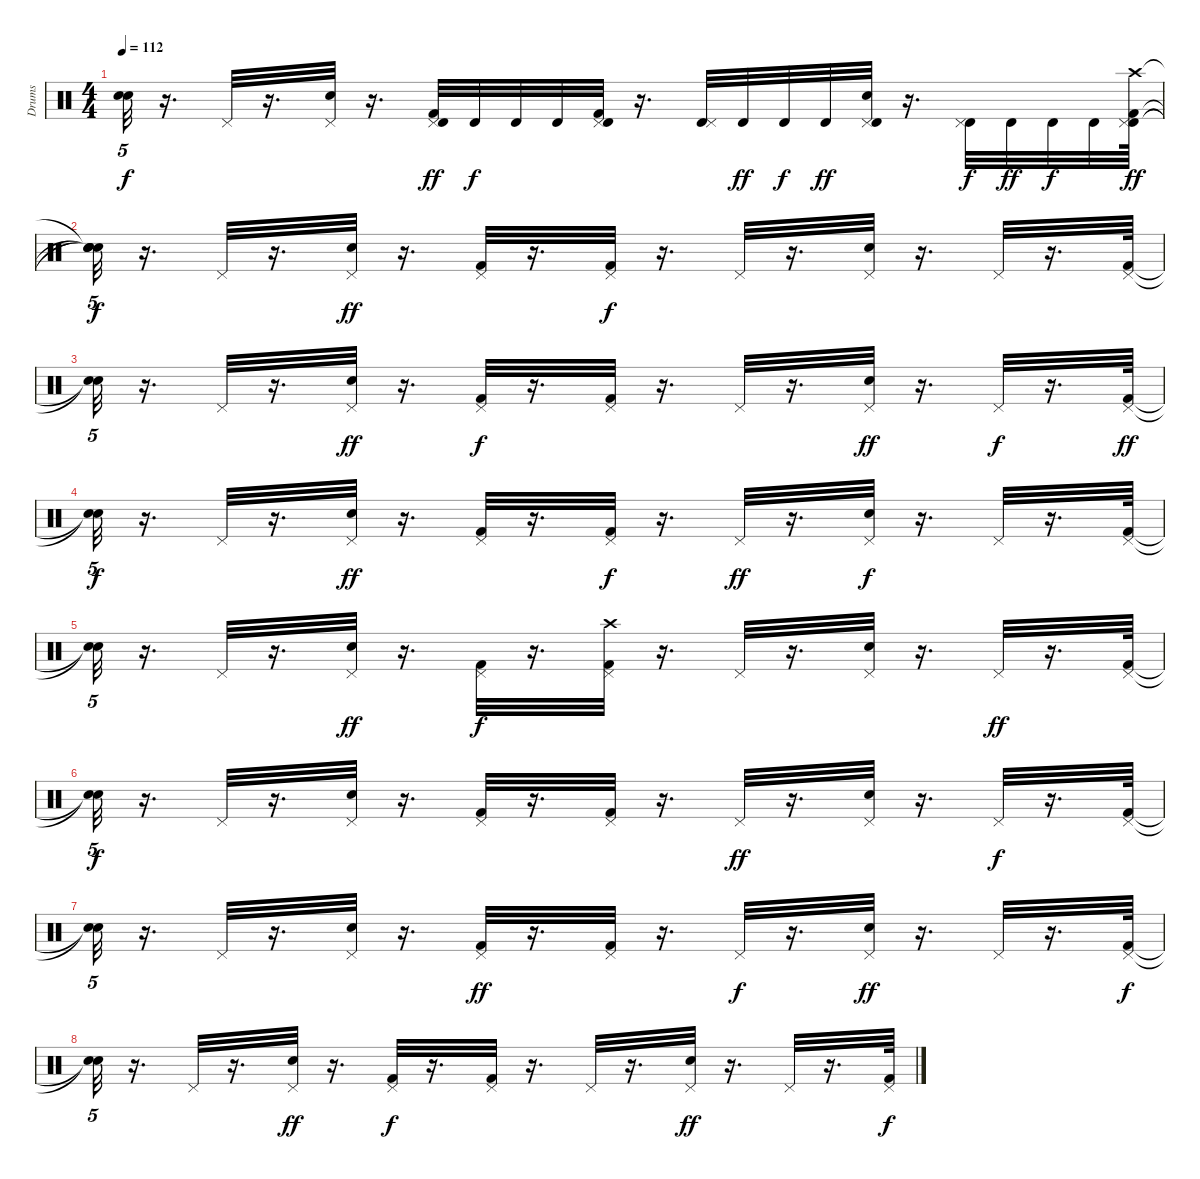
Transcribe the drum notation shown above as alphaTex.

\track ("Drums" "Drums") {instrument percussion}
\staff {score}
\articulation defaults
\ts (4 4)
\tempo 112
\clef neutral
\ks c
("Snare (hit)"{t} "Snare (hit)"{t}).32{tu (5 4) dy f} r.16{d} "Pedal Hi-Hat (hit)".32 r.16{d} ("Snare (hit) 2" "Pedal Hi-Hat (hit)").32 r.16{d} ("Kick (hit) 2" "Pedal Hi-Hat (hit)" "Timbale high (hit)").32{dy ff} "Timbale high (hit)".32{dy f} "Timbale high (hit)".32 "Timbale high (hit)".32 ("Pedal Hi-Hat (hit)" "Kick (hit) 2" "Timbale high (hit)").32 r.16{d} ("Timbale high (hit)" "Pedal Hi-Hat (hit)").32 "Timbale high (hit)".32{dy ff} "Timbale high (hit)".32{dy f} "Timbale high (hit)".32{dy ff} ("Snare (hit) 2" "Pedal Hi-Hat (hit)" "Timbale high (hit)").32 r.16{d} ("Timbale high (hit)" "Pedal Hi-Hat (hit)").32{dy f} "Timbale high (hit)".32{dy ff} "Timbale high (hit)".32{dy f} "Timbale high (hit)".32 ("Timbale high (hit)" "Crash high (hit)" "Pedal Hi-Hat (hit)" "Kick (hit) 2").64{dy ff} |
("Snare (hit)"{t} "Snare (hit)"{t} "Snare (hit)"{t} "Snare (hit)"{t}).32{tu (5 4) dy f} r.16{d} "Pedal Hi-Hat (hit)".32 r.16{d} ("Pedal Hi-Hat (hit)" "Snare (hit) 2").32{dy ff} r.16{d} ("Kick (hit) 2" "Pedal Hi-Hat (hit)").32 r.16{d} ("Kick (hit) 2" "Pedal Hi-Hat (hit)").32{dy f} r.16{d} "Pedal Hi-Hat (hit)".32 r.16{d} ("Pedal Hi-Hat (hit)" "Snare (hit) 2").32 r.16{d} "Pedal Hi-Hat (hit)".32 r.16{d} ("Kick (hit) 2" "Pedal Hi-Hat (hit)").64 |
("Snare (hit)"{t} "Snare (hit)"{t}).32{tu (5 4)} r.16{d} "Pedal Hi-Hat (hit)".32 r.16{d} ("Snare (hit) 2" "Pedal Hi-Hat (hit)").32{dy ff} r.16{d} ("Kick (hit) 2" "Pedal Hi-Hat (hit)").32{dy f} r.16{d} ("Kick (hit) 2" "Pedal Hi-Hat (hit)").32 r.16{d} "Pedal Hi-Hat (hit)".32 r.16{d} ("Snare (hit) 2" "Pedal Hi-Hat (hit)").32{dy ff} r.16{d} "Pedal Hi-Hat (hit)".32{dy f} r.16{d} ("Pedal Hi-Hat (hit)" "Kick (hit) 2").64{dy ff} |
("Snare (hit)"{t} "Snare (hit)"{t}).32{tu (5 4) dy f} r.16{d} "Pedal Hi-Hat (hit)".32 r.16{d} ("Snare (hit) 2" "Pedal Hi-Hat (hit)").32{dy ff} r.16{d} ("Kick (hit) 2" "Pedal Hi-Hat (hit)").32 r.16{d} ("Pedal Hi-Hat (hit)" "Kick (hit) 2").32{dy f} r.16{d} "Pedal Hi-Hat (hit)".32{dy ff} r.16{d} ("Pedal Hi-Hat (hit)" "Snare (hit) 2").32{dy f} r.16{d} "Pedal Hi-Hat (hit)".32 r.16{d} ("Pedal Hi-Hat (hit)" "Kick (hit) 2").64 |
("Snare (hit)"{t} "Snare (hit)"{t}).32{tu (5 4)} r.16{d} "Pedal Hi-Hat (hit)".32 r.16{d} ("Pedal Hi-Hat (hit)" "Snare (hit) 2").32{dy ff} r.16{d} ("Kick (hit) 2" "Pedal Hi-Hat (hit)").32{dy f} r.16{d} ("Pedal Hi-Hat (hit)" "Crash high (hit)" "Kick (hit) 2").32 r.16{d} "Pedal Hi-Hat (hit)".32 r.16{d} ("Snare (hit) 2" "Pedal Hi-Hat (hit)").32 r.16{d} "Pedal Hi-Hat (hit)".32{dy ff} r.16{d} ("Pedal Hi-Hat (hit)" "Kick (hit) 2").64 |
("Snare (hit)"{t} "Snare (hit)"{t}).32{tu (5 4) dy f} r.16{d} "Pedal Hi-Hat (hit)".32 r.16{d} ("Pedal Hi-Hat (hit)" "Snare (hit) 2").32 r.16{d} ("Pedal Hi-Hat (hit)" "Kick (hit) 2").32 r.16{d} ("Kick (hit) 2" "Pedal Hi-Hat (hit)").32 r.16{d} "Pedal Hi-Hat (hit)".32{dy ff} r.16{d} ("Snare (hit) 2" "Pedal Hi-Hat (hit)").32 r.16{d} "Pedal Hi-Hat (hit)".32{dy f} r.16{d} ("Kick (hit) 2" "Pedal Hi-Hat (hit)").64 |
("Snare (hit)"{t} "Snare (hit)"{t}).32{tu (5 4)} r.16{d} "Pedal Hi-Hat (hit)".32 r.16{d} ("Snare (hit) 2" "Pedal Hi-Hat (hit)").32 r.16{d} ("Pedal Hi-Hat (hit)" "Kick (hit) 2").32{dy ff} r.16{d} ("Pedal Hi-Hat (hit)" "Kick (hit) 2").32 r.16{d} "Pedal Hi-Hat (hit)".32{dy f} r.16{d} ("Pedal Hi-Hat (hit)" "Snare (hit) 2").32{dy ff} r.16{d} "Pedal Hi-Hat (hit)".32 r.16{d} ("Kick (hit) 2" "Pedal Hi-Hat (hit)").64{dy f} |
("Snare (hit)"{t} "Snare (hit)"{t}).32{tu (5 4)} r.16{d} "Pedal Hi-Hat (hit)".32 r.16{d} ("Pedal Hi-Hat (hit)" "Snare (hit) 2").32{dy ff} r.16{d} ("Pedal Hi-Hat (hit)" "Kick (hit) 2").32{dy f} r.16{d} ("Kick (hit) 2" "Pedal Hi-Hat (hit)").32 r.16{d} "Pedal Hi-Hat (hit)".32 r.16{d} ("Pedal Hi-Hat (hit)" "Snare (hit) 2").32{dy ff} r.16{d} "Pedal Hi-Hat (hit)".32 r.16{d} ("Kick (hit) 2" "Pedal Hi-Hat (hit)").64{dy f}
